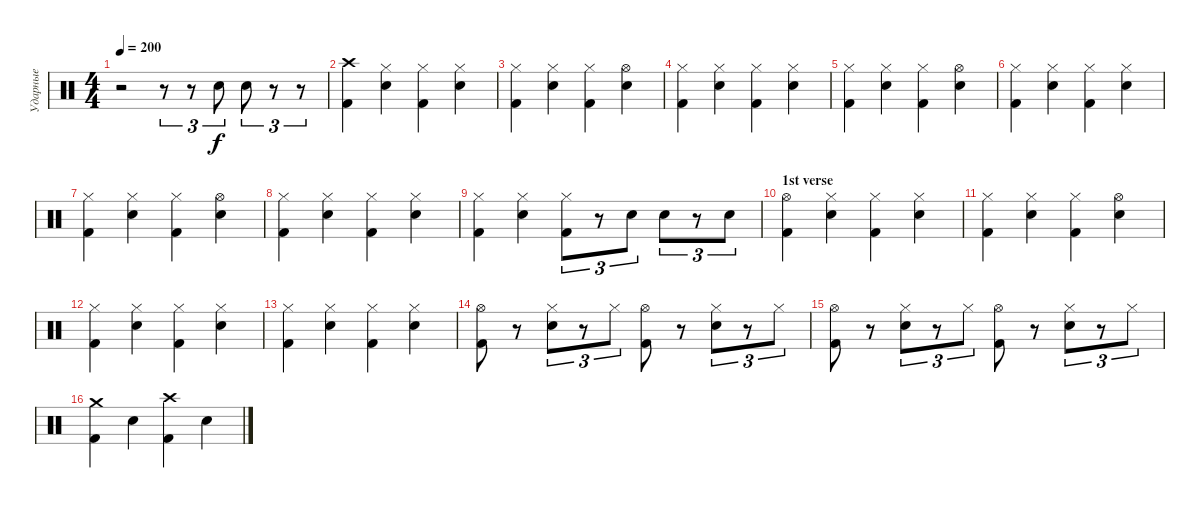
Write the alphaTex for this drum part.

\track ("Ударные" "Ударные") {instrument percussion}
\staff {score}
\articulation defaults
\ts (4 4)
\tempo 200
\clef neutral
\ks c
r.2{dy f} r.8{tu (3 2)} r.8{tu (3 2)} "Electric Snare (hit)".8{tu (3 2)} "Electric Snare (hit)".8{tu (3 2)} r.8{tu (3 2)} r.8{tu (3 2)} |
("Crash high (hit)" "Kick (hit) 2").4 ("Hi-Hat (closed)" "Electric Snare (hit)").4 ("Hi-Hat (closed)" "Kick (hit) 2").4 ("Hi-Hat (closed)" "Electric Snare (hit)").4 |
("Hi-Hat (closed)" "Kick (hit) 2").4 ("Hi-Hat (closed)" "Electric Snare (hit)").4 ("Hi-Hat (closed)" "Kick (hit) 2").4 ("Hi-Hat (open)" "Electric Snare (hit)").4 |
("Hi-Hat (closed)" "Kick (hit) 2").4 ("Hi-Hat (closed)" "Electric Snare (hit)").4 ("Hi-Hat (closed)" "Kick (hit) 2").4 ("Hi-Hat (closed)" "Electric Snare (hit)").4 |
("Hi-Hat (closed)" "Kick (hit) 2").4 ("Hi-Hat (closed)" "Electric Snare (hit)").4 ("Hi-Hat (closed)" "Kick (hit) 2").4 ("Hi-Hat (open)" "Electric Snare (hit)").4 |
("Hi-Hat (closed)" "Kick (hit) 2").4 ("Hi-Hat (closed)" "Electric Snare (hit)").4 ("Hi-Hat (closed)" "Kick (hit) 2").4 ("Hi-Hat (closed)" "Electric Snare (hit)").4 |
("Hi-Hat (closed)" "Kick (hit) 2").4 ("Hi-Hat (closed)" "Electric Snare (hit)").4 ("Hi-Hat (closed)" "Kick (hit) 2").4 ("Hi-Hat (open)" "Electric Snare (hit)").4 |
("Hi-Hat (closed)" "Kick (hit) 2").4 ("Hi-Hat (closed)" "Electric Snare (hit)").4 ("Hi-Hat (closed)" "Kick (hit) 2").4 ("Hi-Hat (closed)" "Electric Snare (hit)").4 |
("Hi-Hat (closed)" "Kick (hit) 2").4 ("Hi-Hat (closed)" "Electric Snare (hit)").4 ("Hi-Hat (closed)" "Kick (hit) 2").8{tu (3 2)} r.8{tu (3 2)} "Electric Snare (hit)".8{tu (3 2)} "Electric Snare (hit)".8{tu (3 2)} r.8{tu (3 2)} "Electric Snare (hit)".8{tu (3 2)} |
\section ("" "1st verse")
("Hi-Hat (open)" "Kick (hit) 2").4 ("Hi-Hat (closed)" "Electric Snare (hit)").4 ("Hi-Hat (closed)" "Kick (hit) 2").4 ("Hi-Hat (closed)" "Electric Snare (hit)").4 |
("Hi-Hat (closed)" "Kick (hit) 2").4 ("Hi-Hat (closed)" "Electric Snare (hit)").4 ("Hi-Hat (closed)" "Kick (hit) 2").4 ("Hi-Hat (open)" "Electric Snare (hit)").4 |
("Hi-Hat (closed)" "Kick (hit) 2").4 ("Hi-Hat (closed)" "Electric Snare (hit)").4 ("Hi-Hat (closed)" "Kick (hit) 2").4 ("Hi-Hat (closed)" "Electric Snare (hit)").4 |
("Hi-Hat (closed)" "Kick (hit) 2").4 ("Hi-Hat (closed)" "Electric Snare (hit)").4 ("Hi-Hat (closed)" "Kick (hit) 2").4 ("Hi-Hat (closed)" "Electric Snare (hit)").4 |
("Hi-Hat (open)" "Kick (hit) 2").8 r.8 ("Hi-Hat (closed)" "Electric Snare (hit)").8{tu (3 2)} r.8{tu (3 2)} "Hi-Hat (closed)".8{tu (3 2)} ("Hi-Hat (open)" "Kick (hit) 2").8 r.8 ("Hi-Hat (closed)" "Electric Snare (hit)").8{tu (3 2)} r.8{tu (3 2)} "Hi-Hat (closed)".8{tu (3 2)} |
("Hi-Hat (open)" "Kick (hit) 2").8 r.8 ("Hi-Hat (closed)" "Electric Snare (hit)").8{tu (3 2)} r.8{tu (3 2)} "Hi-Hat (closed)".8{tu (3 2)} ("Hi-Hat (open)" "Kick (hit) 2").8 r.8 ("Hi-Hat (closed)" "Electric Snare (hit)").8{tu (3 2)} r.8{tu (3 2)} "Hi-Hat (closed)".8{tu (3 2)} |
("Crash medium (hit)" "Kick (hit) 2").4 "Electric Snare (hit)".4 ("Crash high (hit)" "Kick (hit) 2").4 "Electric Snare (hit)".4
